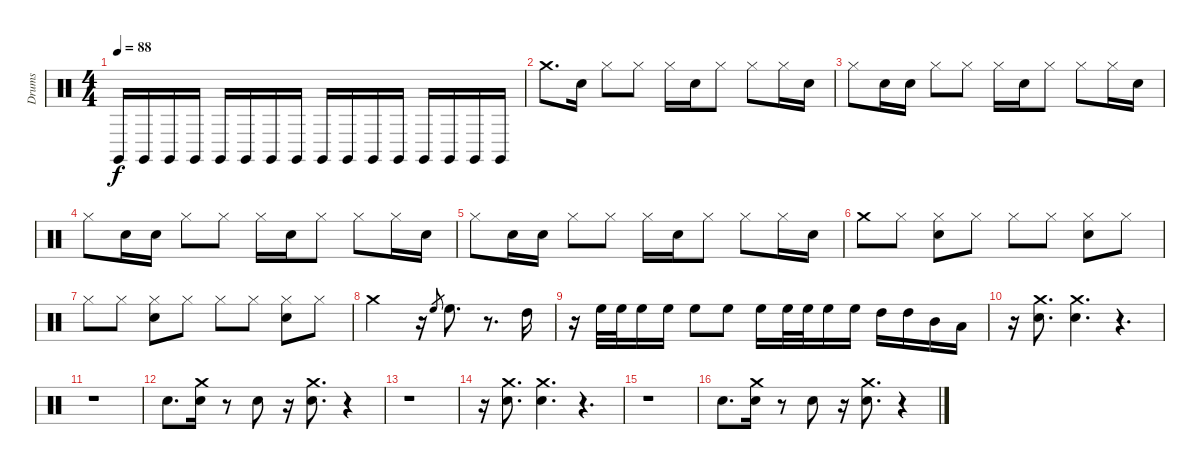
\track ("Drums" "Drums") {instrument percussion}
\staff {score}
\articulation defaults
\ts (4 4)
\tempo 88
\clef neutral
\ks c "Claves (hit)".16{dy f} "Claves (hit)".16 "Claves (hit)".16 "Claves (hit)".16 "Claves (hit)".16 "Claves (hit)".16 "Claves (hit)".16 "Claves (hit)".16 "Claves (hit)".16 "Claves (hit)".16 "Claves (hit)".16 "Claves (hit)".16 "Claves (hit)".16 "Claves (hit)".16 "Claves (hit)".16 "Claves (hit)".16
|
"Crash medium (hit)".8{d} "Electric Snare (hit)".16 "Hi-Hat (closed)".8 "Hi-Hat (closed)".8 "Hi-Hat (closed)".16 "Electric Snare (hit)".16 "Hi-Hat (closed)".8 "Hi-Hat (closed)".8 "Hi-Hat (closed)".16 "Electric Snare (hit)".16 |
"Hi-Hat (closed)".8 "Electric Snare (hit)".16 "Electric Snare (hit)".16 "Hi-Hat (closed)".8 "Hi-Hat (closed)".8 "Hi-Hat (closed)".16 "Electric Snare (hit)".16 "Hi-Hat (closed)".8 "Hi-Hat (closed)".8 "Hi-Hat (closed)".16 "Electric Snare (hit)".16 |
"Hi-Hat (closed)".8 "Electric Snare (hit)".16 "Electric Snare (hit)".16 "Hi-Hat (closed)".8 "Hi-Hat (closed)".8 "Hi-Hat (closed)".16 "Electric Snare (hit)".16 "Hi-Hat (closed)".8 "Hi-Hat (closed)".8 "Hi-Hat (closed)".16 "Electric Snare (hit)".16 |
"Hi-Hat (closed)".8 "Electric Snare (hit)".16 "Electric Snare (hit)".16 "Hi-Hat (closed)".8 "Hi-Hat (closed)".8 "Hi-Hat (closed)".16 "Electric Snare (hit)".16 "Hi-Hat (closed)".8 "Hi-Hat (closed)".8 "Hi-Hat (closed)".16 "Electric Snare (hit)".16 |
"Crash medium (hit)".8 "Hi-Hat (closed)".8 ("Hi-Hat (closed)" "Electric Snare (hit)").8 "Hi-Hat (closed)".8 "Hi-Hat (closed)".8 "Hi-Hat (closed)".8 ("Hi-Hat (closed)" "Electric Snare (hit)").8 "Hi-Hat (closed)".8 |
"Hi-Hat (closed)".8 "Hi-Hat (closed)".8 ("Hi-Hat (closed)" "Electric Snare (hit)").8 "Hi-Hat (closed)".8 "Hi-Hat (closed)".8 "Hi-Hat (closed)".8 ("Hi-Hat (closed)" "Electric Snare (hit)").8 "Hi-Hat (closed)".8 |
"Crash medium (hit)".2 r.16 "High Floor Tom (hit)".8{gr} "High Floor Tom (hit)".8{d} r.8{d} "High Tom (hit)".16 |
r.16 "High Floor Tom (hit)".32 "High Floor Tom (hit)".32 "High Floor Tom (hit)".16 "High Floor Tom (hit)".16 "High Floor Tom (hit)".8 "High Floor Tom (hit)".8 "High Floor Tom (hit)".16 "High Floor Tom (hit)".32 "High Floor Tom (hit)".32 "High Floor Tom (hit)".16 "High Floor Tom (hit)".16 "High Tom (hit)".16 "High Tom (hit)".16 "Mid Tom (hit)".16 "Low Tom (hit)".16 |
r.16 ("Electric Snare (hit)" "Crash medium (hit)").8{d} ("Electric Snare (hit)" "Crash medium (hit)").4{d} r.4{d} |
r.1 |
"Electric Snare (hit)".8{d} ("Electric Snare (hit)" "Crash medium (hit)").16 r.8 "Electric Snare (hit)".8 r.16 ("Electric Snare (hit)" "Crash medium (hit)").8{d} r.4 |
r.1 |
r.16 ("Electric Snare (hit)" "Crash medium (hit)").8{d} ("Electric Snare (hit)" "Crash medium (hit)").4{d} r.4{d} |
r.1 |
"Electric Snare (hit)".8{d} ("Electric Snare (hit)" "Crash medium (hit)").16 r.8 "Electric Snare (hit)".8 r.16 ("Electric Snare (hit)" "Crash medium (hit)").8{d} r.4
